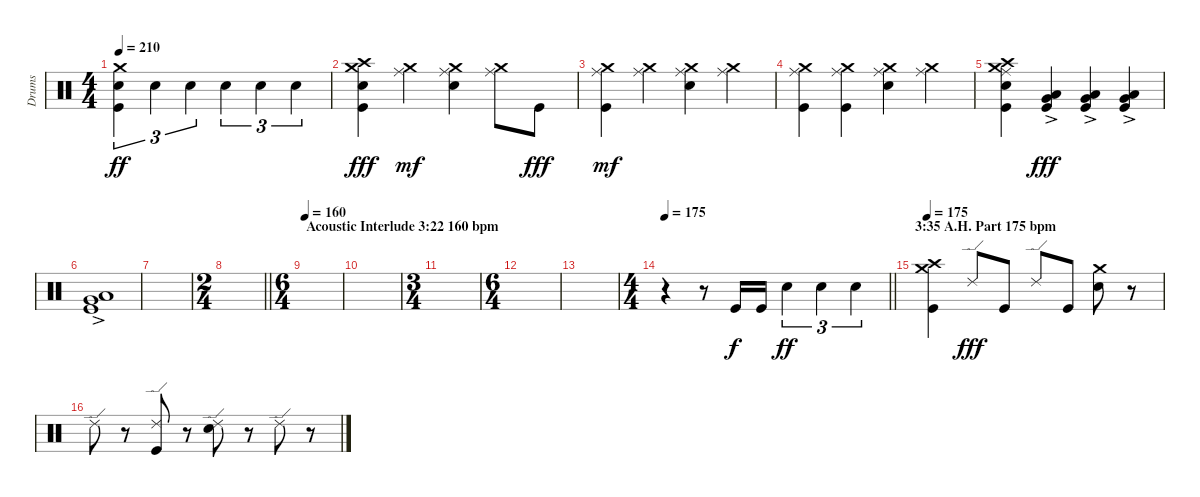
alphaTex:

\track ("Drums" "Drums") {instrument percussion}
\staff {score}
\articulation defaults
\ts (4 4)
\tempo 210
\clef neutral
\ks c
("Kick (hit)" "Electric Snare (hit)" "Crash medium (hit)").4{tu (3 2) dy ff} "Electric Snare (hit)".4{tu (3 2)} "Electric Snare (hit)".4{tu (3 2)} "Electric Snare (hit)".4{tu (3 2)} "Electric Snare (hit)".4{tu (3 2)} "Electric Snare (hit)".4{tu (3 2)} |
("Kick (hit)" "Electric Snare (hit)" "Crash medium (hit)" "Crash high (hit)").4{dy fff} ("Ride (middle)" "Crash medium (hit)").4{dy mf} ("Electric Snare (hit)" "Ride (middle)" "Crash medium (hit)").4 ("Ride (middle)" "Crash medium (hit)").8 "Kick (hit)".8{dy fff} |
("Kick (hit)" "Ride (middle)" "Crash medium (hit)").4{dy mf} ("Ride (middle)" "Crash medium (hit)").4 ("Electric Snare (hit)" "Ride (middle)" "Crash medium (hit)").4 ("Ride (middle)" "Crash medium (hit)").4 |
("Kick (hit)" "Ride (middle)" "Crash medium (hit)").4 ("Kick (hit)" "Ride (middle)" "Crash medium (hit)").4 ("Electric Snare (hit)" "Ride (middle)" "Crash medium (hit)").4 ("Ride (middle)" "Crash medium (hit)").4 |
("Kick (hit)" "Electric Snare (hit)" "Ride (middle)" "Crash medium (hit)" "Crash high (hit)").4 ("Kick (hit)" "Very Low Tom (hit)"{ac} "Low Floor Tom (hit)"{ac}).4{dy fff} ("Kick (hit)" "Very Low Tom (hit)"{ac} "Low Tom (hit)"{ac}).4 ("Kick (hit)" "Very Low Tom (hit)"{ac} "Low Tom (hit)"{ac}).4 |
("Kick (hit)" "Very Low Tom (hit)"{ac} "Low Tom (hit)"{ac}).1 |
|
\ts (2 4)
\barLineRight lightlight
|
\ts (6 4)
\section ("" "Acoustic Interlude 3:22 160 bpm")
\tempo 160
|
|
\ts (3 4)
|
\ts (6 4)
|
|
\ts (4 4)
\tempo 175
\barLineRight lightlight
r.4 r.8 "Kick (hit)".16{dy f} "Kick (hit)".16 "Electric Snare (hit)".4{tu (3 2) dy ff} "Electric Snare (hit)".4{tu (3 2)} "Electric Snare (hit)".4{tu (3 2)} |
\section ("" "3:35 A.H. Part 175 bpm")
\tempo 175
("Kick (hit)" "Crash high (hit)" "Crash medium (hit)").4 "Ride (edge) 2".8{dy fff} "Kick (hit)".8 "Ride (edge) 2".8 "Kick (hit)".8 ("Electric Snare (hit)" "Crash medium (hit)").8 r.8 |
"Ride (edge) 2".8 r.8 ("Kick (hit)" "Ride (edge) 2").8 r.8 ("Electric Snare (hit)" "Ride (edge) 2").8 r.8 "Ride (edge) 2".8 r.8
